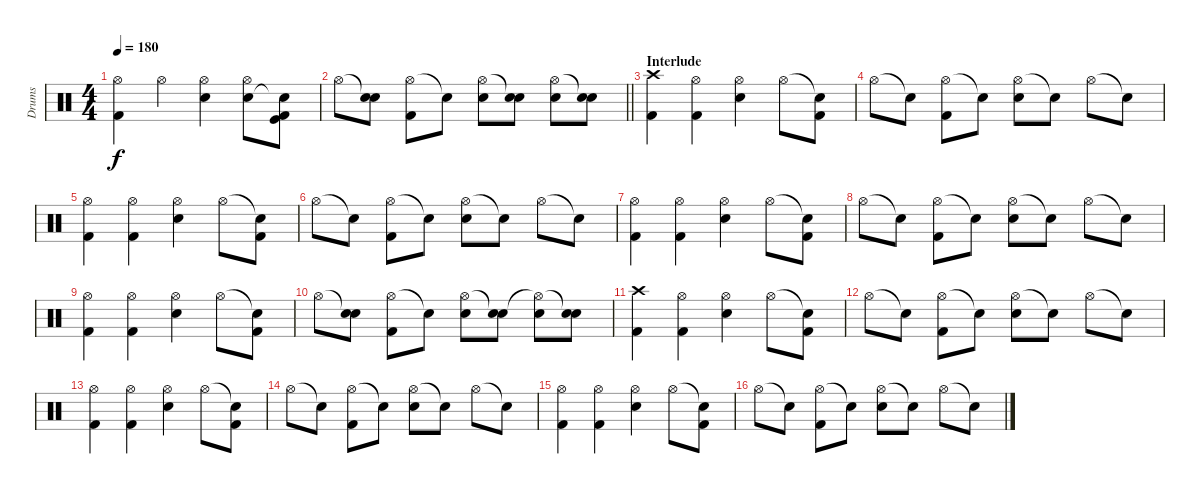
\track ("Drums" "Drums") {instrument percussion}
\staff {score}
\articulation defaults
\ts (4 4)
\tempo 180
\clef neutral
\ks c
("Hi-Hat (open)" "Kick (hit) 2").4{dy f} "Hi-Hat (open)".4 ("Hi-Hat (open)" "Snare (hit) 2").4 ("Hi-Hat (open)" "Snare (hit) 2").8 ("Kick (hit)" "Snare (hit)"{t} "Kick (hit) 2").8 |
\barLineRight lightlight "Hi-Hat (open)".8
("Snare (hit)"{t} "Snare (hit) 2").8 ("Hi-Hat (open)" "Kick (hit) 2").8 "Snare (hit)"{t}.8 ("Hi-Hat (open)" "Snare (hit) 2").8 ("Snare (hit)"{t} "Snare (hit) 2").8 ("Hi-Hat (open)" "Snare (hit) 2").8 ("Snare (hit)"{t} "Snare (hit) 2").8 |
\section ("" "Interlude")
("Crash high (hit)" "Kick (hit) 2").4 ("Hi-Hat (open)" "Kick (hit) 2").4 ("Hi-Hat (open)" "Snare (hit) 2").4 "Hi-Hat (open)".8 ("Snare (hit)"{t} "Kick (hit) 2").8 |
"Hi-Hat (open)".8 "Snare (hit)"{t}.8 ("Hi-Hat (open)" "Kick (hit) 2").8 "Snare (hit)"{t}.8 ("Hi-Hat (open)" "Snare (hit) 2").8 "Snare (hit)"{t}.8 "Hi-Hat (open)".8 "Snare (hit)"{t}.8 |
("Hi-Hat (open)" "Kick (hit) 2").4 ("Hi-Hat (open)" "Kick (hit) 2").4 ("Hi-Hat (open)" "Snare (hit) 2").4 "Hi-Hat (open)".8 ("Snare (hit)"{t} "Kick (hit) 2").8 |
"Hi-Hat (open)".8 "Snare (hit)"{t}.8 ("Hi-Hat (open)" "Kick (hit) 2").8 "Snare (hit)"{t}.8 ("Hi-Hat (open)" "Snare (hit) 2").8 "Snare (hit)"{t}.8 "Hi-Hat (open)".8 "Snare (hit)"{t}.8 |
("Hi-Hat (open)" "Kick (hit) 2").4 ("Hi-Hat (open)" "Kick (hit) 2").4 ("Hi-Hat (open)" "Snare (hit) 2").4 "Hi-Hat (open)".8 ("Snare (hit)"{t} "Kick (hit) 2").8 |
"Hi-Hat (open)".8 "Snare (hit)"{t}.8 ("Hi-Hat (open)" "Kick (hit) 2").8 "Snare (hit)"{t}.8 ("Hi-Hat (open)" "Snare (hit) 2").8 "Snare (hit)"{t}.8 "Hi-Hat (open)".8 "Snare (hit)"{t}.8 |
("Hi-Hat (open)" "Kick (hit) 2").4 ("Hi-Hat (open)" "Kick (hit) 2").4 ("Hi-Hat (open)" "Snare (hit) 2").4 "Hi-Hat (open)".8 ("Snare (hit)"{t} "Kick (hit) 2").8 |
"Hi-Hat (open)".8 ("Snare (hit)"{t} "Snare (hit) 2").8 ("Hi-Hat (open)" "Kick (hit) 2").8 "Snare (hit)"{t}.8 ("Hi-Hat (open)" "Snare (hit) 2").8 ("Snare (hit)"{t} "Snare (hit) 2").8 ("Hi-Hat (open)"{t} "Snare (hit) 2").8 ("Snare (hit)"{t} "Snare (hit) 2").8 |
("Crash high (hit)" "Kick (hit) 2").4 ("Hi-Hat (open)" "Kick (hit) 2").4 ("Hi-Hat (open)" "Snare (hit) 2").4 "Hi-Hat (open)".8 ("Snare (hit)"{t} "Kick (hit) 2").8 |
"Hi-Hat (open)".8 "Snare (hit)"{t}.8 ("Hi-Hat (open)" "Kick (hit) 2").8 "Snare (hit)"{t}.8 ("Hi-Hat (open)" "Snare (hit) 2").8 "Snare (hit)"{t}.8 "Hi-Hat (open)".8 "Snare (hit)"{t}.8 |
("Hi-Hat (open)" "Kick (hit) 2").4 ("Hi-Hat (open)" "Kick (hit) 2").4 ("Hi-Hat (open)" "Snare (hit) 2").4 "Hi-Hat (open)".8 ("Snare (hit)"{t} "Kick (hit) 2").8 |
"Hi-Hat (open)".8 "Snare (hit)"{t}.8 ("Hi-Hat (open)" "Kick (hit) 2").8 "Snare (hit)"{t}.8 ("Hi-Hat (open)" "Snare (hit) 2").8 "Snare (hit)"{t}.8 "Hi-Hat (open)".8 "Snare (hit)"{t}.8 |
("Hi-Hat (open)" "Kick (hit) 2").4 ("Hi-Hat (open)" "Kick (hit) 2").4 ("Hi-Hat (open)" "Snare (hit) 2").4 "Hi-Hat (open)".8 ("Snare (hit)"{t} "Kick (hit) 2").8 |
"Hi-Hat (open)".8 "Snare (hit)"{t}.8 ("Hi-Hat (open)" "Kick (hit) 2").8 "Snare (hit)"{t}.8 ("Hi-Hat (open)" "Snare (hit) 2").8 "Snare (hit)"{t}.8 "Hi-Hat (open)".8 "Snare (hit)"{t}.8
